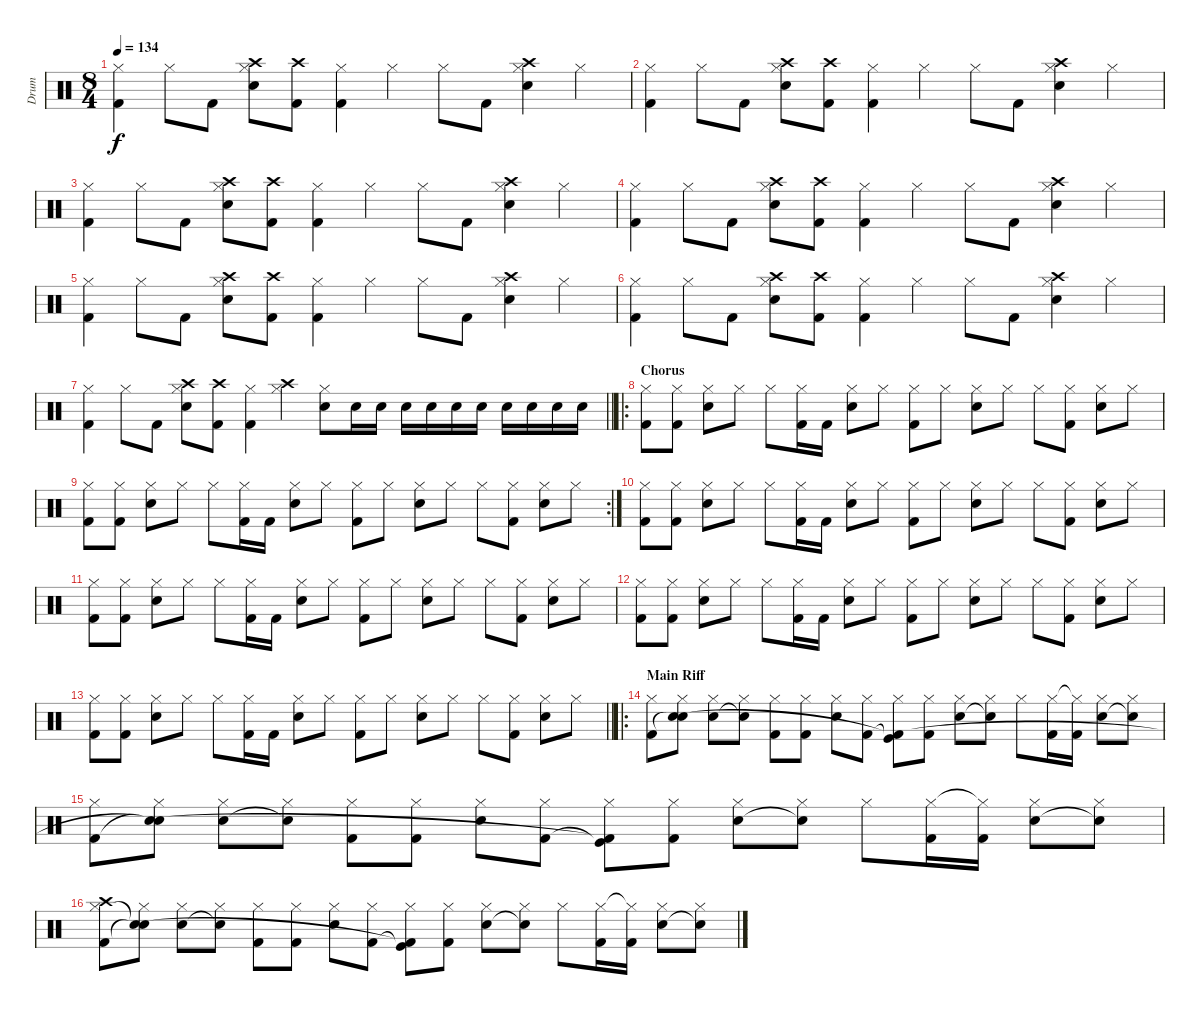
\track ("Drum" "Drum") {instrument percussion}
\staff {score}
\articulation defaults
\ts (8 4)
\tempo 134
\clef neutral
\ks c
("Hi-Hat (closed)" "Kick (hit) 2").4{dy f} "Hi-Hat (closed)".8 "Kick (hit) 2".8 ("Crash high (hit)" "Hi-Hat (closed)" "Snare (hit) 2").8 ("Crash high (hit)" "Kick (hit) 2").8 ("Hi-Hat (closed)" "Kick (hit) 2").4 "Hi-Hat (closed)".4 "Hi-Hat (closed)".8 "Kick (hit) 2".8 ("Crash high (hit)" "Hi-Hat (closed)" "Snare (hit) 2").4 "Hi-Hat (closed)".4 |
("Hi-Hat (closed)" "Kick (hit) 2").4 "Hi-Hat (closed)".8 "Kick (hit) 2".8 ("Crash high (hit)" "Hi-Hat (closed)" "Snare (hit) 2").8 ("Crash high (hit)" "Kick (hit) 2").8 ("Hi-Hat (closed)" "Kick (hit) 2").4 "Hi-Hat (closed)".4 "Hi-Hat (closed)".8 "Kick (hit) 2".8 ("Crash high (hit)" "Hi-Hat (closed)" "Snare (hit) 2").4 "Hi-Hat (closed)".4 |
("Hi-Hat (closed)" "Kick (hit) 2").4 "Hi-Hat (closed)".8 "Kick (hit) 2".8 ("Crash high (hit)" "Hi-Hat (closed)" "Snare (hit) 2").8 ("Crash high (hit)" "Kick (hit) 2").8 ("Hi-Hat (closed)" "Kick (hit) 2").4 "Hi-Hat (closed)".4 "Hi-Hat (closed)".8 "Kick (hit) 2".8 ("Crash high (hit)" "Hi-Hat (closed)" "Snare (hit) 2").4 "Hi-Hat (closed)".4 |
("Hi-Hat (closed)" "Kick (hit) 2").4 "Hi-Hat (closed)".8 "Kick (hit) 2".8 ("Crash high (hit)" "Hi-Hat (closed)" "Snare (hit) 2").8 ("Crash high (hit)" "Kick (hit) 2").8 ("Hi-Hat (closed)" "Kick (hit) 2").4 "Hi-Hat (closed)".4 "Hi-Hat (closed)".8 "Kick (hit) 2".8 ("Crash high (hit)" "Hi-Hat (closed)" "Snare (hit) 2").4 "Hi-Hat (closed)".4 |
("Hi-Hat (closed)" "Kick (hit) 2").4 "Hi-Hat (closed)".8 "Kick (hit) 2".8 ("Crash high (hit)" "Hi-Hat (closed)" "Snare (hit) 2").8 ("Crash high (hit)" "Kick (hit) 2").8 ("Hi-Hat (closed)" "Kick (hit) 2").4 "Hi-Hat (closed)".4 "Hi-Hat (closed)".8 "Kick (hit) 2".8 ("Crash high (hit)" "Hi-Hat (closed)" "Snare (hit) 2").4 "Hi-Hat (closed)".4 |
("Hi-Hat (closed)" "Kick (hit) 2").4 "Hi-Hat (closed)".8 "Kick (hit) 2".8 ("Crash high (hit)" "Hi-Hat (closed)" "Snare (hit) 2").8 ("Crash high (hit)" "Kick (hit) 2").8 ("Hi-Hat (closed)" "Kick (hit) 2").4 "Hi-Hat (closed)".4 "Hi-Hat (closed)".8 "Kick (hit) 2".8 ("Crash high (hit)" "Hi-Hat (closed)" "Snare (hit) 2").4 "Hi-Hat (closed)".4 |
\barLineRight lightlight
("Hi-Hat (closed)" "Kick (hit) 2").4 "Hi-Hat (closed)".8 "Kick (hit) 2".8 ("Crash high (hit)" "Hi-Hat (closed)" "Snare (hit) 2").8 ("Crash high (hit)" "Kick (hit) 2").8 ("Hi-Hat (closed)" "Kick (hit) 2").4 ("Crash high (hit)" "Hi-Hat (closed)").4 ("Hi-Hat (closed)" "Snare (hit) 2").8 "Electric Snare (hit)".16 "Electric Snare (hit)".16 "Electric Snare (hit)".16 "Electric Snare (hit)".16 "Electric Snare (hit)".16 "Electric Snare (hit)".16 "Electric Snare (hit)".16 "Electric Snare (hit)".16 "Electric Snare (hit)".16 "Electric Snare (hit)".16 |
\ro
\section ("" "Chorus")
("Hi-Hat (closed)" "Kick (hit) 2").8 ("Hi-Hat (closed)" "Kick (hit) 2").8 ("Hi-Hat (closed)" "Snare (hit) 2").8 "Hi-Hat (closed)".8 "Hi-Hat (closed)".8 ("Hi-Hat (closed)" "Kick (hit) 2").16 "Kick (hit) 2".16 ("Hi-Hat (closed)" "Snare (hit) 2").8 "Hi-Hat (closed)".8 ("Hi-Hat (closed)" "Kick (hit) 2").8 "Hi-Hat (closed)".8 ("Hi-Hat (closed)" "Snare (hit) 2").8 "Hi-Hat (closed)".8 "Hi-Hat (closed)".8 ("Hi-Hat (closed)" "Kick (hit) 2").8 ("Hi-Hat (closed)" "Snare (hit) 2").8 "Hi-Hat (closed)".8 |
\rc 2
("Hi-Hat (closed)" "Kick (hit) 2").8 ("Hi-Hat (closed)" "Kick (hit) 2").8 ("Hi-Hat (closed)" "Snare (hit) 2").8 "Hi-Hat (closed)".8 "Hi-Hat (closed)".8 ("Hi-Hat (closed)" "Kick (hit) 2").16 "Kick (hit) 2".16 ("Hi-Hat (closed)" "Snare (hit) 2").8 "Hi-Hat (closed)".8 ("Hi-Hat (closed)" "Kick (hit) 2").8 "Hi-Hat (closed)".8 ("Hi-Hat (closed)" "Snare (hit) 2").8 "Hi-Hat (closed)".8 "Hi-Hat (closed)".8 ("Hi-Hat (closed)" "Kick (hit) 2").8 ("Hi-Hat (closed)" "Snare (hit) 2").8 "Hi-Hat (closed)".8 |
("Hi-Hat (closed)" "Kick (hit) 2").8 ("Hi-Hat (closed)" "Kick (hit) 2").8 ("Hi-Hat (closed)" "Snare (hit) 2").8 "Hi-Hat (closed)".8 "Hi-Hat (closed)".8 ("Hi-Hat (closed)" "Kick (hit) 2").16 "Kick (hit) 2".16 ("Hi-Hat (closed)" "Snare (hit) 2").8 "Hi-Hat (closed)".8 ("Hi-Hat (closed)" "Kick (hit) 2").8 "Hi-Hat (closed)".8 ("Hi-Hat (closed)" "Snare (hit) 2").8 "Hi-Hat (closed)".8 "Hi-Hat (closed)".8 ("Hi-Hat (closed)" "Kick (hit) 2").8 ("Hi-Hat (closed)" "Snare (hit) 2").8 "Hi-Hat (closed)".8 |
("Hi-Hat (closed)" "Kick (hit) 2").8 ("Hi-Hat (closed)" "Kick (hit) 2").8 ("Hi-Hat (closed)" "Snare (hit) 2").8 "Hi-Hat (closed)".8 "Hi-Hat (closed)".8 ("Hi-Hat (closed)" "Kick (hit) 2").16 "Kick (hit) 2".16 ("Hi-Hat (closed)" "Snare (hit) 2").8 "Hi-Hat (closed)".8 ("Hi-Hat (closed)" "Kick (hit) 2").8 "Hi-Hat (closed)".8 ("Hi-Hat (closed)" "Snare (hit) 2").8 "Hi-Hat (closed)".8 "Hi-Hat (closed)".8 ("Hi-Hat (closed)" "Kick (hit) 2").8 ("Hi-Hat (closed)" "Snare (hit) 2").8 "Hi-Hat (closed)".8 |
("Hi-Hat (closed)" "Kick (hit) 2").8 ("Hi-Hat (closed)" "Kick (hit) 2").8 ("Hi-Hat (closed)" "Snare (hit) 2").8 "Hi-Hat (closed)".8 "Hi-Hat (closed)".8 ("Hi-Hat (closed)" "Kick (hit) 2").16 "Kick (hit) 2".16 ("Hi-Hat (closed)" "Snare (hit) 2").8 "Hi-Hat (closed)".8 ("Hi-Hat (closed)" "Kick (hit) 2").8 "Hi-Hat (closed)".8 ("Hi-Hat (closed)" "Snare (hit) 2").8 "Hi-Hat (closed)".8 "Hi-Hat (closed)".8 ("Hi-Hat (closed)" "Kick (hit) 2").8 ("Hi-Hat (closed)" "Snare (hit) 2").8 "Hi-Hat (closed)".8 |
\barLineRight lightlight
("Hi-Hat (closed)" "Kick (hit) 2").8 ("Hi-Hat (closed)" "Kick (hit) 2").8 ("Hi-Hat (closed)" "Snare (hit) 2").8 "Hi-Hat (closed)".8 "Hi-Hat (closed)".8 ("Hi-Hat (closed)" "Kick (hit) 2").16 "Kick (hit) 2".16 ("Hi-Hat (closed)" "Snare (hit) 2").8 "Hi-Hat (closed)".8 ("Hi-Hat (closed)" "Kick (hit) 2").8 "Hi-Hat (closed)".8 ("Hi-Hat (closed)" "Snare (hit) 2").8 "Hi-Hat (closed)".8 "Hi-Hat (closed)".8 ("Hi-Hat (closed)" "Kick (hit) 2").8 ("Hi-Hat (closed)" "Snare (hit) 2").8 "Hi-Hat (closed)".8 |
\ro
\section ("" "Main Riff")
("Hi-Hat (closed)" "Kick (hit) 2").8 ("Hi-Hat (closed)" "Snare (hit)"{t} "Snare (hit)").8 ("Hi-Hat (closed)" "Snare (hit) 2").8 ("Hi-Hat (closed)" "Snare (hit)"{t}).8 ("Hi-Hat (closed)" "Kick (hit) 2").8 ("Hi-Hat (closed)" "Kick (hit) 2").8 ("Hi-Hat (closed)" "Snare (hit) 2").8 ("Hi-Hat (closed)" "Kick (hit) 2").8 ("Hi-Hat (closed)" "Kick (hit)"{t} "Kick (hit) 2"{t}).8 ("Hi-Hat (closed)" "Kick (hit) 2").8 ("Hi-Hat (closed)" "Snare (hit) 2").8 ("Hi-Hat (closed)" "Snare (hit)"{t}).8 "Hi-Hat (closed)".8 ("Hi-Hat (closed)" "Kick (hit) 2").16 ("Hi-Hat (closed)"{t} "Kick (hit) 2").16 ("Hi-Hat (closed)" "Snare (hit) 2").8 ("Hi-Hat (closed)" "Snare (hit)"{t}).8 |
("Hi-Hat (closed)" "Kick (hit) 2").8 ("Hi-Hat (closed)" "Snare (hit)"{t} "Snare (hit)"{t}).8 ("Hi-Hat (closed)" "Snare (hit) 2").8 ("Hi-Hat (closed)" "Snare (hit)"{t}).8 ("Hi-Hat (closed)" "Kick (hit) 2").8 ("Hi-Hat (closed)" "Kick (hit) 2").8 ("Hi-Hat (closed)" "Snare (hit) 2").8 ("Hi-Hat (closed)" "Kick (hit) 2").8 ("Hi-Hat (closed)" "Kick (hit)"{t} "Kick (hit) 2"{t}).8 ("Hi-Hat (closed)" "Kick (hit) 2").8 ("Hi-Hat (closed)" "Snare (hit) 2").8 ("Hi-Hat (closed)" "Snare (hit)"{t}).8 "Hi-Hat (closed)".8 ("Hi-Hat (closed)" "Kick (hit) 2").16 ("Hi-Hat (closed)"{t} "Kick (hit) 2").16 ("Hi-Hat (closed)" "Snare (hit) 2").8 ("Hi-Hat (closed)" "Snare (hit)"{t}).8 |
("Crash high (hit)" "Hi-Hat (closed)" "Kick (hit) 2").8 ("Hi-Hat (closed)" "Snare (hit)"{t} "Snare (hit)"{t}).8 ("Hi-Hat (closed)" "Snare (hit) 2").8 ("Hi-Hat (closed)" "Snare (hit)"{t}).8 ("Hi-Hat (closed)" "Kick (hit) 2").8 ("Hi-Hat (closed)" "Kick (hit) 2").8 ("Hi-Hat (closed)" "Snare (hit) 2").8 ("Hi-Hat (closed)" "Kick (hit) 2").8 ("Hi-Hat (closed)" "Kick (hit)"{t} "Kick (hit) 2"{t}).8 ("Hi-Hat (closed)" "Kick (hit) 2").8 ("Hi-Hat (closed)" "Snare (hit) 2").8 ("Hi-Hat (closed)" "Snare (hit)"{t}).8 "Hi-Hat (closed)".8 ("Hi-Hat (closed)" "Kick (hit) 2").16 ("Hi-Hat (closed)"{t} "Kick (hit) 2").16 ("Hi-Hat (closed)" "Snare (hit) 2").8 ("Hi-Hat (closed)" "Snare (hit)"{t}).8
